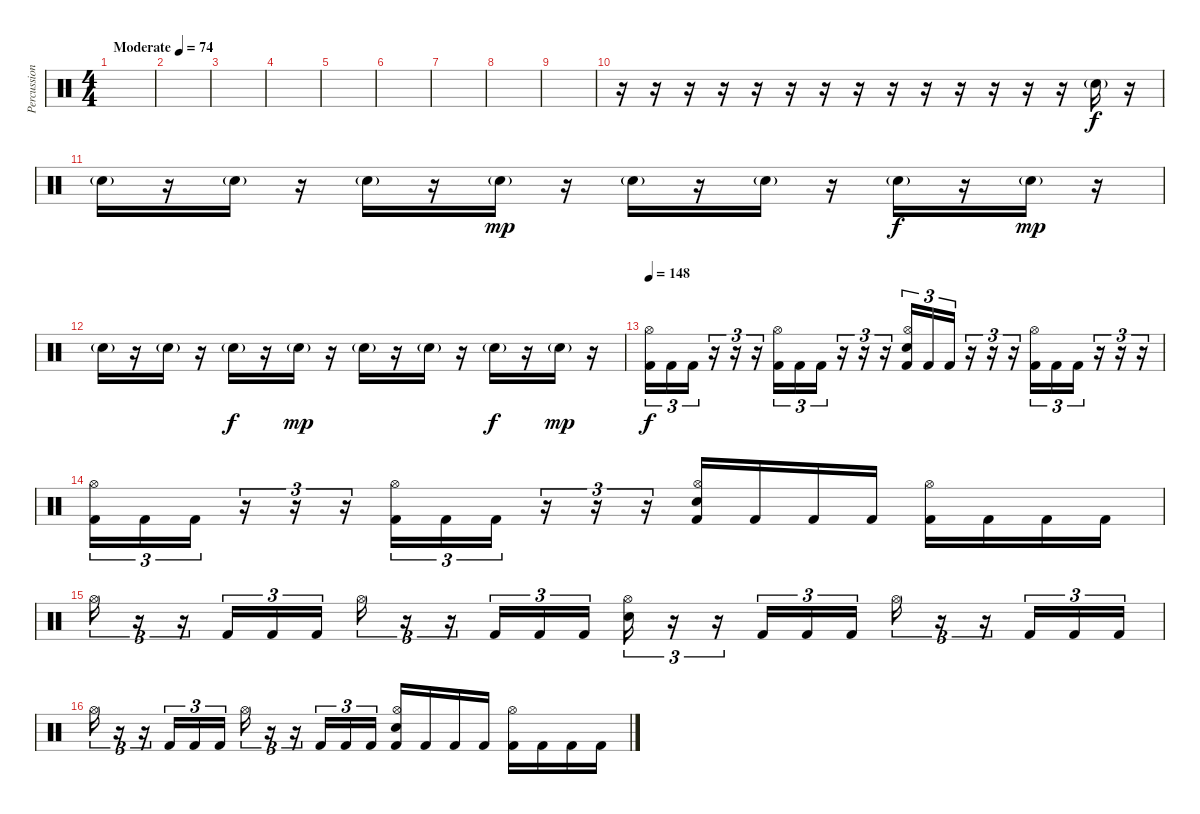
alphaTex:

\track ("Percussion" "Percussion") {instrument percussion}
\staff {score}
\articulation defaults
\ts (4 4)
\tempo (74 "Moderate")
\clef neutral
\ks c
|
|
|
|
|
|
|
|
|
r.16 r.16 r.16 r.16 r.16 r.16 r.16 r.16 r.16 r.16 r.16 r.16 r.16 r.16 "Electric Snare (hit)"{g}.16 r.16 |
"Electric Snare (hit)"{g}.16 r.16 "Electric Snare (hit)"{g}.16 r.16 "Electric Snare (hit)"{g}.16{dy f} r.16 "Electric Snare (hit)"{g}.16{dy mp} r.16 "Electric Snare (hit)"{g}.16 r.16 "Electric Snare (hit)"{g}.16 r.16 "Electric Snare (hit)"{g}.16{dy f} r.16 "Electric Snare (hit)"{g}.16{dy mp} r.16 |
"Electric Snare (hit)"{g}.16 r.16 "Electric Snare (hit)"{g}.16 r.16 "Electric Snare (hit)"{g}.16{dy f} r.16 "Electric Snare (hit)"{g}.16{dy mp} r.16 "Electric Snare (hit)"{g}.16 r.16 "Electric Snare (hit)"{g}.16 r.16 "Electric Snare (hit)"{g}.16{dy f} r.16 "Electric Snare (hit)"{g}.16{dy mp} r.16 |
\tempo 148
("Hi-Hat (open)" "Kick (hit) 2").16{tu (3 2) dy f} "Kick (hit) 2".16{tu (3 2)} "Kick (hit) 2".16{tu (3 2)} r.16{tu (3 2)} r.16{tu (3 2)} r.16{tu (3 2)} ("Hi-Hat (open)" "Kick (hit) 2").16{tu (3 2)} "Kick (hit) 2".16{tu (3 2)} "Kick (hit) 2".16{tu (3 2)} r.16{tu (3 2)} r.16{tu (3 2)} r.16{tu (3 2)} ("Hi-Hat (open)" "Electric Snare (hit)" "Kick (hit) 2").16{tu (3 2)} "Kick (hit) 2".16{tu (3 2)} "Kick (hit) 2".16{tu (3 2)} r.16{tu (3 2)} r.16{tu (3 2)} r.16{tu (3 2)} ("Hi-Hat (open)" "Kick (hit) 2").16{tu (3 2)} "Kick (hit) 2".16{tu (3 2)} "Kick (hit) 2".16{tu (3 2)} r.16{tu (3 2)} r.16{tu (3 2)} r.16{tu (3 2)} |
("Hi-Hat (open)" "Kick (hit) 2").16{tu (3 2)} "Kick (hit) 2".16{tu (3 2)} "Kick (hit) 2".16{tu (3 2)} r.16{tu (3 2)} r.16{tu (3 2)} r.16{tu (3 2)} ("Hi-Hat (open)" "Kick (hit) 2").16{tu (3 2)} "Kick (hit) 2".16{tu (3 2)} "Kick (hit) 2".16{tu (3 2)} r.16{tu (3 2)} r.16{tu (3 2)} r.16{tu (3 2)} ("Hi-Hat (open)" "Electric Snare (hit)" "Kick (hit) 2").16 "Kick (hit) 2".16 "Kick (hit) 2".16 "Kick (hit) 2".16 ("Hi-Hat (open)" "Kick (hit) 2").16 "Kick (hit) 2".16 "Kick (hit) 2".16 "Kick (hit) 2".16 |
"Hi-Hat (open)".16{tu (3 2)} r.16{tu (3 2)} r.16{tu (3 2)} "Kick (hit) 2".16{tu (3 2)} "Kick (hit) 2".16{tu (3 2)} "Kick (hit) 2".16{tu (3 2)} "Hi-Hat (open)".16{tu (3 2)} r.16{tu (3 2)} r.16{tu (3 2)} "Kick (hit) 2".16{tu (3 2)} "Kick (hit) 2".16{tu (3 2)} "Kick (hit) 2".16{tu (3 2)} ("Hi-Hat (open)" "Electric Snare (hit)").16{tu (3 2)} r.16{tu (3 2)} r.16{tu (3 2)} "Kick (hit) 2".16{tu (3 2)} "Kick (hit) 2".16{tu (3 2)} "Kick (hit) 2".16{tu (3 2)} "Hi-Hat (open)".16{tu (3 2)} r.16{tu (3 2)} r.16{tu (3 2)} "Kick (hit) 2".16{tu (3 2)} "Kick (hit) 2".16{tu (3 2)} "Kick (hit) 2".16{tu (3 2)} |
"Hi-Hat (open)".16{tu (3 2)} r.16{tu (3 2)} r.16{tu (3 2)} "Kick (hit) 2".16{tu (3 2)} "Kick (hit) 2".16{tu (3 2)} "Kick (hit) 2".16{tu (3 2)} "Hi-Hat (open)".16{tu (3 2)} r.16{tu (3 2)} r.16{tu (3 2)} "Kick (hit) 2".16{tu (3 2)} "Kick (hit) 2".16{tu (3 2)} "Kick (hit) 2".16{tu (3 2)} ("Hi-Hat (open)" "Electric Snare (hit)" "Kick (hit) 2").16 "Kick (hit) 2".16 "Kick (hit) 2".16 "Kick (hit) 2".16 ("Hi-Hat (open)" "Kick (hit) 2").16 "Kick (hit) 2".16 "Kick (hit) 2".16 "Kick (hit) 2".16
